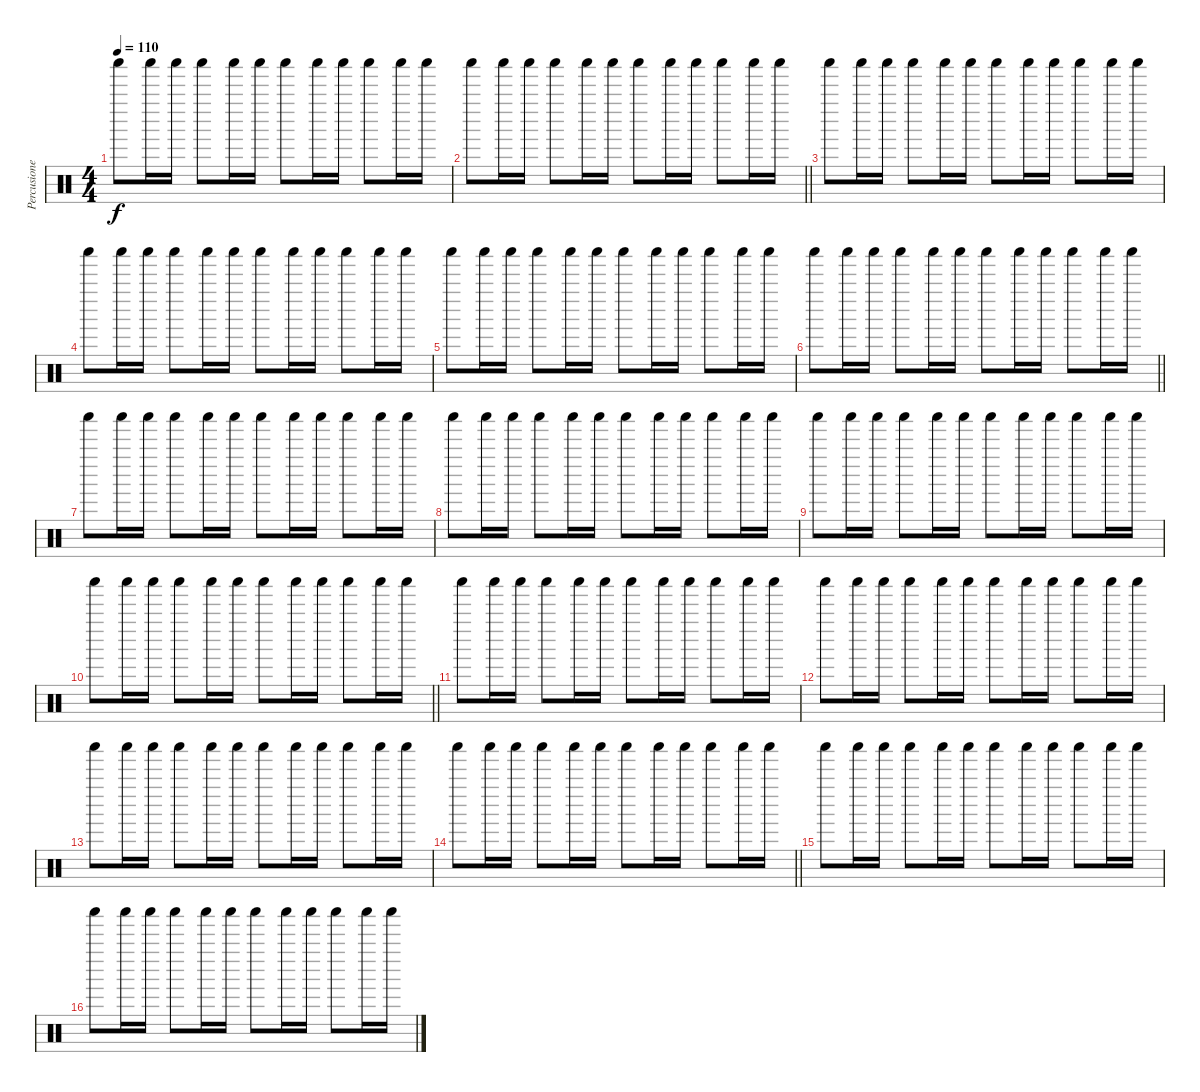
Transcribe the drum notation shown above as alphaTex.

\track ("Percusiones" "Percusione") {instrument percussion}
\staff {score}
\articulation defaults
\ts (4 4)
\tempo 110
\clef neutral
\ks c "Shaker (hit)".8{dy f} "Shaker (hit)".16 "Shaker (hit)".16 "Shaker (hit)".8 "Shaker (hit)".16 "Shaker (hit)".16 "Shaker (hit)".8 "Shaker (hit)".16 "Shaker (hit)".16 "Shaker (hit)".8 "Shaker (hit)".16 "Shaker (hit)".16
|
\barLineRight lightlight "Shaker (hit)".8 "Shaker (hit)".16 "Shaker (hit)".16 "Shaker (hit)".8 "Shaker (hit)".16 "Shaker (hit)".16 "Shaker (hit)".8 "Shaker (hit)".16 "Shaker (hit)".16 "Shaker (hit)".8 "Shaker (hit)".16 "Shaker (hit)".16
|
"Shaker (hit)".8 "Shaker (hit)".16 "Shaker (hit)".16 "Shaker (hit)".8 "Shaker (hit)".16 "Shaker (hit)".16 "Shaker (hit)".8 "Shaker (hit)".16 "Shaker (hit)".16 "Shaker (hit)".8 "Shaker (hit)".16 "Shaker (hit)".16 |
"Shaker (hit)".8 "Shaker (hit)".16 "Shaker (hit)".16 "Shaker (hit)".8 "Shaker (hit)".16 "Shaker (hit)".16 "Shaker (hit)".8 "Shaker (hit)".16 "Shaker (hit)".16 "Shaker (hit)".8 "Shaker (hit)".16 "Shaker (hit)".16 |
"Shaker (hit)".8 "Shaker (hit)".16 "Shaker (hit)".16 "Shaker (hit)".8 "Shaker (hit)".16 "Shaker (hit)".16 "Shaker (hit)".8 "Shaker (hit)".16 "Shaker (hit)".16 "Shaker (hit)".8 "Shaker (hit)".16 "Shaker (hit)".16 |
\barLineRight lightlight "Shaker (hit)".8 "Shaker (hit)".16 "Shaker (hit)".16 "Shaker (hit)".8 "Shaker (hit)".16 "Shaker (hit)".16 "Shaker (hit)".8 "Shaker (hit)".16 "Shaker (hit)".16 "Shaker (hit)".8 "Shaker (hit)".16 "Shaker (hit)".16
|
"Shaker (hit)".8 "Shaker (hit)".16 "Shaker (hit)".16 "Shaker (hit)".8 "Shaker (hit)".16 "Shaker (hit)".16 "Shaker (hit)".8 "Shaker (hit)".16 "Shaker (hit)".16 "Shaker (hit)".8 "Shaker (hit)".16 "Shaker (hit)".16 |
"Shaker (hit)".8 "Shaker (hit)".16 "Shaker (hit)".16 "Shaker (hit)".8 "Shaker (hit)".16 "Shaker (hit)".16 "Shaker (hit)".8 "Shaker (hit)".16 "Shaker (hit)".16 "Shaker (hit)".8 "Shaker (hit)".16 "Shaker (hit)".16 |
"Shaker (hit)".8 "Shaker (hit)".16 "Shaker (hit)".16 "Shaker (hit)".8 "Shaker (hit)".16 "Shaker (hit)".16 "Shaker (hit)".8 "Shaker (hit)".16 "Shaker (hit)".16 "Shaker (hit)".8 "Shaker (hit)".16 "Shaker (hit)".16 |
\barLineRight lightlight "Shaker (hit)".8 "Shaker (hit)".16 "Shaker (hit)".16 "Shaker (hit)".8 "Shaker (hit)".16 "Shaker (hit)".16 "Shaker (hit)".8 "Shaker (hit)".16 "Shaker (hit)".16 "Shaker (hit)".8 "Shaker (hit)".16 "Shaker (hit)".16
|
"Shaker (hit)".8 "Shaker (hit)".16 "Shaker (hit)".16 "Shaker (hit)".8 "Shaker (hit)".16 "Shaker (hit)".16 "Shaker (hit)".8 "Shaker (hit)".16 "Shaker (hit)".16 "Shaker (hit)".8 "Shaker (hit)".16 "Shaker (hit)".16 |
"Shaker (hit)".8 "Shaker (hit)".16 "Shaker (hit)".16 "Shaker (hit)".8 "Shaker (hit)".16 "Shaker (hit)".16 "Shaker (hit)".8 "Shaker (hit)".16 "Shaker (hit)".16 "Shaker (hit)".8 "Shaker (hit)".16 "Shaker (hit)".16 |
"Shaker (hit)".8 "Shaker (hit)".16 "Shaker (hit)".16 "Shaker (hit)".8 "Shaker (hit)".16 "Shaker (hit)".16 "Shaker (hit)".8 "Shaker (hit)".16 "Shaker (hit)".16 "Shaker (hit)".8 "Shaker (hit)".16 "Shaker (hit)".16 |
\barLineRight lightlight "Shaker (hit)".8 "Shaker (hit)".16 "Shaker (hit)".16 "Shaker (hit)".8 "Shaker (hit)".16 "Shaker (hit)".16 "Shaker (hit)".8 "Shaker (hit)".16 "Shaker (hit)".16 "Shaker (hit)".8 "Shaker (hit)".16 "Shaker (hit)".16
|
"Shaker (hit)".8 "Shaker (hit)".16 "Shaker (hit)".16 "Shaker (hit)".8 "Shaker (hit)".16 "Shaker (hit)".16 "Shaker (hit)".8 "Shaker (hit)".16 "Shaker (hit)".16 "Shaker (hit)".8 "Shaker (hit)".16 "Shaker (hit)".16 |
"Shaker (hit)".8 "Shaker (hit)".16 "Shaker (hit)".16 "Shaker (hit)".8 "Shaker (hit)".16 "Shaker (hit)".16 "Shaker (hit)".8 "Shaker (hit)".16 "Shaker (hit)".16 "Shaker (hit)".8 "Shaker (hit)".16 "Shaker (hit)".16
